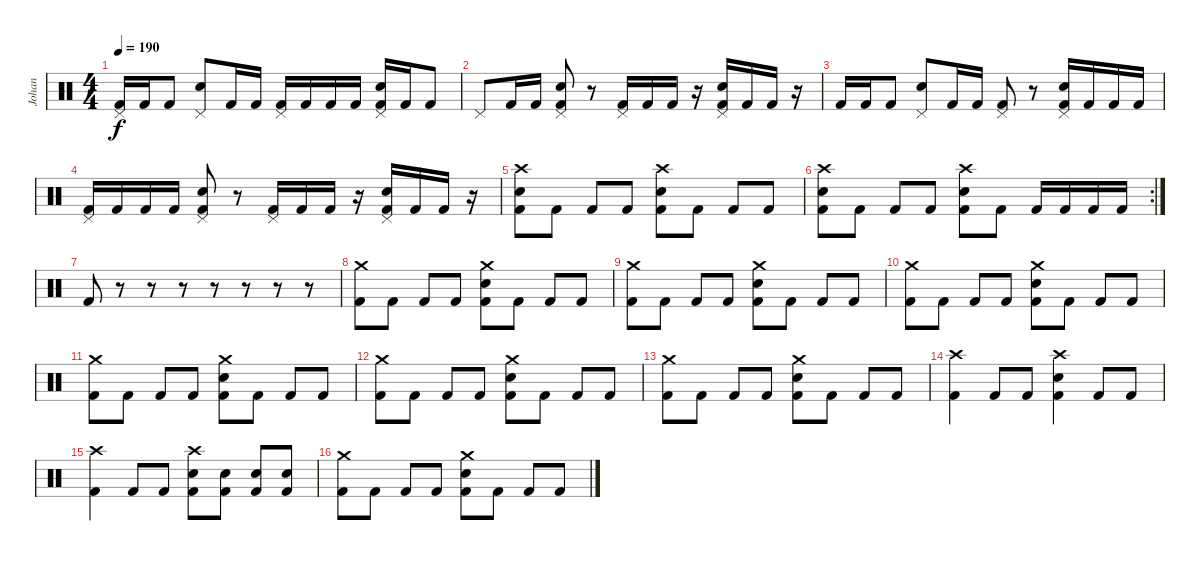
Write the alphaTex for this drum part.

\track ("Johan" "Johan") {instrument percussion}
\staff {score}
\articulation defaults
\ts (4 4)
\tempo 190
\clef neutral
\ks c
("Pedal Hi-Hat (hit)" "Kick (hit) 2").16{dy f} "Kick (hit) 2".16 "Kick (hit) 2".8 ("Electric Snare (hit)" "Pedal Hi-Hat (hit)").8 "Kick (hit) 2".16 "Kick (hit) 2".16 ("Pedal Hi-Hat (hit)" "Kick (hit) 2").16 "Kick (hit) 2".16 "Kick (hit) 2".16 "Kick (hit) 2".16 ("Electric Snare (hit)" "Pedal Hi-Hat (hit)" "Kick (hit) 2").16 "Kick (hit) 2".16 "Kick (hit) 2".8 |
"Pedal Hi-Hat (hit)".8 "Kick (hit) 2".16 "Kick (hit) 2".16 ("Electric Snare (hit)" "Pedal Hi-Hat (hit)" "Kick (hit) 2").8 r.8 ("Pedal Hi-Hat (hit)" "Kick (hit) 2").16 "Kick (hit) 2".16 "Kick (hit) 2".16 r.16 ("Electric Snare (hit)" "Pedal Hi-Hat (hit)" "Kick (hit) 2").16 "Kick (hit) 2".16 "Kick (hit) 2".16 r.16 |
"Kick (hit) 2".16 "Kick (hit) 2".16 "Kick (hit) 2".8 ("Electric Snare (hit)" "Pedal Hi-Hat (hit)").8 "Kick (hit) 2".16 "Kick (hit) 2".16 ("Pedal Hi-Hat (hit)" "Kick (hit) 2").8 r.8 ("Electric Snare (hit)" "Pedal Hi-Hat (hit)" "Kick (hit) 2").16 "Kick (hit) 2".16 "Kick (hit) 2".16 "Kick (hit) 2".16 |
("Pedal Hi-Hat (hit)" "Kick (hit) 2").16 "Kick (hit) 2".16 "Kick (hit) 2".16 "Kick (hit) 2".16 ("Electric Snare (hit)" "Pedal Hi-Hat (hit)" "Kick (hit) 2").8 r.8 ("Pedal Hi-Hat (hit)" "Kick (hit) 2").16 "Kick (hit) 2".16 "Kick (hit) 2".16 r.16 ("Electric Snare (hit)" "Pedal Hi-Hat (hit)" "Kick (hit) 2").16 "Kick (hit) 2".16 "Kick (hit) 2".16 r.16 |
("Electric Snare (hit)" "Crash high (hit)" "Kick (hit) 2").8 "Kick (hit) 2".8 "Kick (hit) 2".8 "Kick (hit) 2".8 ("Electric Snare (hit)" "Crash high (hit)" "Kick (hit) 2").8 "Kick (hit) 2".8 "Kick (hit) 2".8 "Kick (hit) 2".8 |
\rc 2
("Electric Snare (hit)" "Crash high (hit)" "Kick (hit) 2").8 "Kick (hit) 2".8 "Kick (hit) 2".8 "Kick (hit) 2".8 ("Electric Snare (hit)" "Crash high (hit)" "Kick (hit) 2").8 "Kick (hit) 2".8 "Kick (hit) 2".16 "Kick (hit) 2".16 "Kick (hit) 2".16 "Kick (hit) 2".16 |
"Kick (hit) 2".8 r.8 r.8 r.8 r.8 r.8 r.8 r.8 |
("Crash medium (hit)" "Kick (hit) 2").8 "Kick (hit) 2".8 "Kick (hit) 2".8 "Kick (hit) 2".8 ("Electric Snare (hit)" "Crash medium (hit)" "Kick (hit) 2").8 "Kick (hit) 2".8 "Kick (hit) 2".8 "Kick (hit) 2".8 |
("Crash medium (hit)" "Kick (hit) 2").8 "Kick (hit) 2".8 "Kick (hit) 2".8 "Kick (hit) 2".8 ("Electric Snare (hit)" "Crash medium (hit)" "Kick (hit) 2").8 "Kick (hit) 2".8 "Kick (hit) 2".8 "Kick (hit) 2".8 |
("Crash medium (hit)" "Kick (hit) 2").8 "Kick (hit) 2".8 "Kick (hit) 2".8 "Kick (hit) 2".8 ("Electric Snare (hit)" "Crash medium (hit)" "Kick (hit) 2").8 "Kick (hit) 2".8 "Kick (hit) 2".8 "Kick (hit) 2".8 |
("Crash medium (hit)" "Kick (hit) 2").8 "Kick (hit) 2".8 "Kick (hit) 2".8 "Kick (hit) 2".8 ("Electric Snare (hit)" "Crash medium (hit)" "Kick (hit) 2").8 "Kick (hit) 2".8 "Kick (hit) 2".8 "Kick (hit) 2".8 |
("Crash medium (hit)" "Kick (hit) 2").8 "Kick (hit) 2".8 "Kick (hit) 2".8 "Kick (hit) 2".8 ("Electric Snare (hit)" "Crash medium (hit)" "Kick (hit) 2").8 "Kick (hit) 2".8 "Kick (hit) 2".8 "Kick (hit) 2".8 |
("Crash medium (hit)" "Kick (hit) 2").8 "Kick (hit) 2".8 "Kick (hit) 2".8 "Kick (hit) 2".8 ("Electric Snare (hit)" "Crash medium (hit)" "Kick (hit) 2").8 "Kick (hit) 2".8 "Kick (hit) 2".8 "Kick (hit) 2".8 |
("Crash high (hit)" "Kick (hit) 2").4 "Kick (hit) 2".8 "Kick (hit) 2".8 ("Electric Snare (hit)" "Crash high (hit)" "Kick (hit) 2").4 "Kick (hit) 2".8 "Kick (hit) 2".8 |
("Crash high (hit)" "Kick (hit) 2").4 "Kick (hit) 2".8 "Kick (hit) 2".8 ("Electric Snare (hit)" "Crash high (hit)" "Kick (hit) 2").8 ("Electric Snare (hit)" "Kick (hit) 2").8 ("Electric Snare (hit)" "Kick (hit) 2").8 ("Electric Snare (hit)" "Kick (hit) 2").8 |
("Crash medium (hit)" "Kick (hit) 2").8 "Kick (hit) 2".8 "Kick (hit) 2".8 "Kick (hit) 2".8 ("Electric Snare (hit)" "Crash medium (hit)" "Kick (hit) 2").8 "Kick (hit) 2".8 "Kick (hit) 2".8 "Kick (hit) 2".8
